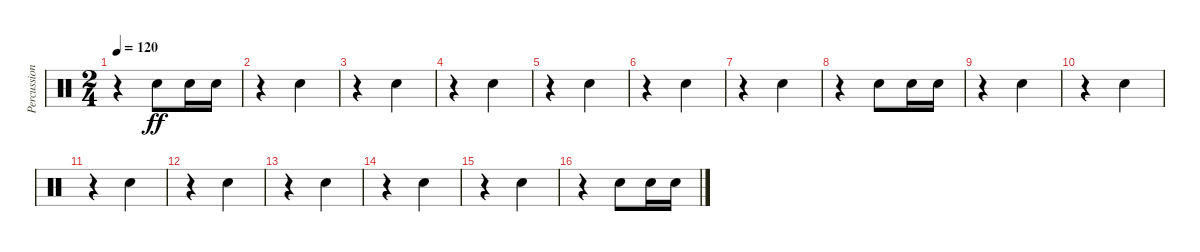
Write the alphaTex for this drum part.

\track ("Percussion" "Percussion") {instrument percussion}
\staff {score}
\articulation defaults
\ts (2 4)
\tempo 120
\clef neutral
\ks c
r.4{dy ff} "Snare (hit) 2".8 "Snare (hit) 2".16 "Snare (hit) 2".16 |
r.4 "Snare (hit) 2".4 |
r.4 "Snare (hit) 2".4 |
r.4 "Snare (hit) 2".4 |
r.4 "Snare (hit) 2".4 |
r.4 "Snare (hit) 2".4 |
r.4 "Snare (hit) 2".4 |
r.4 "Snare (hit) 2".8 "Snare (hit) 2".16 "Snare (hit) 2".16 |
r.4 "Snare (hit) 2".4 |
r.4 "Snare (hit) 2".4 |
r.4 "Snare (hit) 2".4 |
r.4 "Snare (hit) 2".4 |
r.4 "Snare (hit) 2".4 |
r.4 "Snare (hit) 2".4 |
r.4 "Snare (hit) 2".4 |
r.4 "Snare (hit) 2".8 "Snare (hit) 2".16 "Snare (hit) 2".16
